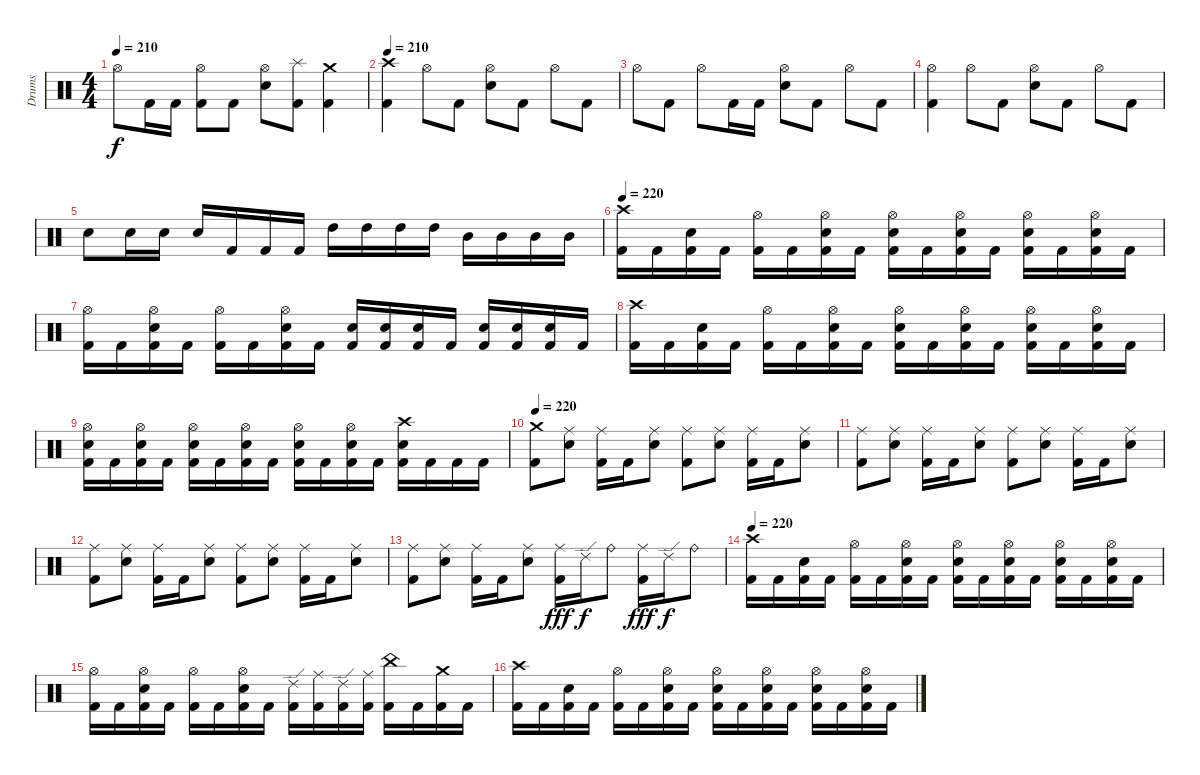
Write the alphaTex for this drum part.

\track ("Drums" "Drums") {instrument percussion}
\staff {score}
\articulation defaults
\ts (4 4)
\tempo 210
\clef neutral
\ks c "Hi-Hat (open)".8{dy f} "Kick (hit) 2".16 "Kick (hit) 2".16
("Hi-Hat (open)" "Kick (hit) 2").8 "Kick (hit) 2".8 ("Hi-Hat (open)" "Electric Snare (hit)").8 ("Splash (hit)" "Kick (hit) 2").8 ("Crash medium (hit)" "Kick (hit) 2").4 |
\tempo 210
("Crash high (hit)" "Kick (hit) 2").4 "Hi-Hat (open)".8 "Kick (hit) 2".8 ("Hi-Hat (open)" "Electric Snare (hit)").8 "Kick (hit) 2".8 "Hi-Hat (open)".8 "Kick (hit) 2".8 |
"Hi-Hat (open)".8 "Kick (hit) 2".8 "Hi-Hat (open)".8 "Kick (hit) 2".16 "Kick (hit) 2".16 ("Hi-Hat (open)" "Electric Snare (hit)").8 "Kick (hit) 2".8 "Hi-Hat (open)".8 "Kick (hit) 2".8 |
("Hi-Hat (open)" "Kick (hit) 2").4 "Hi-Hat (open)".8 "Kick (hit) 2".8 ("Hi-Hat (open)" "Electric Snare (hit)").8 "Kick (hit) 2".8 "Hi-Hat (open)".8 "Kick (hit) 2".8 |
"Electric Snare (hit)".8 "Electric Snare (hit)".16 "Electric Snare (hit)".16 "Electric Snare (hit)".16 "Kick (hit) 2".16 "Kick (hit) 2".16 "Kick (hit) 2".16 "High Tom (hit)".16 "High Tom (hit)".16 "High Tom (hit)".16 "High Tom (hit)".16 "Mid Tom (hit)".16 "Mid Tom (hit)".16 "Mid Tom (hit)".16 "Mid Tom (hit)".16 |
\tempo 220
("Crash high (hit)" "Kick (hit) 2").16 "Kick (hit) 2".16 ("Electric Snare (hit)" "Kick (hit) 2").16 "Kick (hit) 2".16 ("Hi-Hat (open)" "Kick (hit) 2").16 "Kick (hit) 2".16 ("Hi-Hat (open)" "Electric Snare (hit)" "Kick (hit) 2").16 "Kick (hit) 2".16 ("Hi-Hat (open)" "Electric Snare (hit)" "Kick (hit) 2").16 "Kick (hit) 2".16 ("Hi-Hat (open)" "Electric Snare (hit)" "Kick (hit) 2").16 "Kick (hit) 2".16 ("Hi-Hat (open)" "Electric Snare (hit)" "Kick (hit) 2").16 "Kick (hit) 2".16 ("Hi-Hat (open)" "Electric Snare (hit)" "Kick (hit) 2").16 "Kick (hit) 2".16 |
("Hi-Hat (open)" "Kick (hit) 2").16 "Kick (hit) 2".16 ("Hi-Hat (open)" "Electric Snare (hit)" "Kick (hit) 2").16 "Kick (hit) 2".16 ("Hi-Hat (open)" "Kick (hit) 2").16 "Kick (hit) 2".16 ("Hi-Hat (open)" "Electric Snare (hit)" "Kick (hit) 2").16 "Kick (hit) 2".16 ("Electric Snare (hit)" "Kick (hit) 2").16 ("Electric Snare (hit)" "Kick (hit) 2").16 ("Electric Snare (hit)" "Kick (hit) 2").16 "Kick (hit) 2".16 ("Electric Snare (hit)" "Kick (hit) 2").16 ("Electric Snare (hit)" "Kick (hit) 2").16 ("Electric Snare (hit)" "Kick (hit) 2").16 "Kick (hit) 2".16 |
("Crash high (hit)" "Kick (hit) 2").16 "Kick (hit) 2".16 ("Electric Snare (hit)" "Kick (hit) 2").16 "Kick (hit) 2".16 ("Hi-Hat (open)" "Kick (hit) 2").16 "Kick (hit) 2".16 ("Hi-Hat (open)" "Electric Snare (hit)" "Kick (hit) 2").16 "Kick (hit) 2".16 ("Hi-Hat (open)" "Electric Snare (hit)" "Kick (hit) 2").16 "Kick (hit) 2".16 ("Hi-Hat (open)" "Electric Snare (hit)" "Kick (hit) 2").16 "Kick (hit) 2".16 ("Hi-Hat (open)" "Electric Snare (hit)" "Kick (hit) 2").16 "Kick (hit) 2".16 ("Hi-Hat (open)" "Electric Snare (hit)" "Kick (hit) 2").16 "Kick (hit) 2".16 |
("Hi-Hat (open)" "Electric Snare (hit)" "Kick (hit) 2").16 "Kick (hit) 2".16 ("Hi-Hat (open)" "Electric Snare (hit)" "Kick (hit) 2").16 "Kick (hit) 2".16 ("Hi-Hat (open)" "Electric Snare (hit)" "Kick (hit) 2").16 "Kick (hit) 2".16 ("Hi-Hat (open)" "Electric Snare (hit)" "Kick (hit) 2").16 "Kick (hit) 2".16 ("Hi-Hat (open)" "Electric Snare (hit)" "Kick (hit) 2").16 "Kick (hit) 2".16 ("Hi-Hat (open)" "Electric Snare (hit)" "Kick (hit) 2").16 "Kick (hit) 2".16 ("Crash high (hit)" "Electric Snare (hit)" "Kick (hit) 2").16 "Kick (hit) 2".16 "Kick (hit) 2".16 "Kick (hit) 2".16 |
\tempo 220
("Crash medium (hit)" "Kick (hit) 2").8 ("Ride (middle)" "Electric Snare (hit)").8 ("Ride (middle)" "Kick (hit) 2").16 "Kick (hit) 2".16 ("Ride (middle)" "Electric Snare (hit)").8 ("Ride (middle)" "Kick (hit) 2").8 ("Ride (middle)" "Electric Snare (hit)").8 ("Ride (middle)" "Kick (hit) 2").16 "Kick (hit) 2".16 ("Ride (middle)" "Electric Snare (hit)").8 |
("Ride (middle)" "Kick (hit) 2").8 ("Ride (middle)" "Electric Snare (hit)").8 ("Ride (middle)" "Kick (hit) 2").16 "Kick (hit) 2".16 ("Ride (middle)" "Electric Snare (hit)").8 ("Ride (middle)" "Kick (hit) 2").8 ("Ride (middle)" "Electric Snare (hit)").8 ("Ride (middle)" "Kick (hit) 2").16 "Kick (hit) 2".16 ("Ride (middle)" "Electric Snare (hit)").8 |
("Ride (middle)" "Kick (hit) 2").8 ("Ride (middle)" "Electric Snare (hit)").8 ("Ride (middle)" "Kick (hit) 2").16 "Kick (hit) 2".16 ("Ride (middle)" "Electric Snare (hit)").8 ("Ride (middle)" "Kick (hit) 2").8 ("Ride (middle)" "Electric Snare (hit)").8 ("Ride (middle)" "Kick (hit) 2").16 "Kick (hit) 2".16 ("Ride (middle)" "Electric Snare (hit)").8 |
("Ride (middle)" "Kick (hit) 2").8 ("Ride (middle)" "Electric Snare (hit)").8 ("Ride (middle)" "Kick (hit) 2").16 "Kick (hit) 2".16 ("Ride (middle)" "Electric Snare (hit)").8 ("Ride (middle)" "Kick (hit) 2").16{dy fff} "Ride (edge) 2".16{dy f} "Ride (bell)".8 ("Ride (middle)" "Kick (hit) 2").16{dy fff} "Ride (edge) 2".16{dy f} "Ride (bell)".8 |
\tempo 220
("Crash high (hit)" "Kick (hit) 2").16 "Kick (hit) 2".16 ("Electric Snare (hit)" "Kick (hit) 2").16 "Kick (hit) 2".16 ("Hi-Hat (open)" "Kick (hit) 2").16 "Kick (hit) 2".16 ("Hi-Hat (open)" "Electric Snare (hit)" "Kick (hit) 2").16 "Kick (hit) 2".16 ("Hi-Hat (open)" "Electric Snare (hit)" "Kick (hit) 2").16 "Kick (hit) 2".16 ("Hi-Hat (open)" "Electric Snare (hit)" "Kick (hit) 2").16 "Kick (hit) 2".16 ("Hi-Hat (open)" "Electric Snare (hit)" "Kick (hit) 2").16 "Kick (hit) 2".16 ("Hi-Hat (open)" "Electric Snare (hit)" "Kick (hit) 2").16 "Kick (hit) 2".16 |
("Hi-Hat (open)" "Kick (hit) 2").16 "Kick (hit) 2".16 ("Hi-Hat (open)" "Electric Snare (hit)" "Kick (hit) 2").16 "Kick (hit) 2".16 ("Hi-Hat (open)" "Kick (hit) 2").16 "Kick (hit) 2".16 ("Hi-Hat (open)" "Electric Snare (hit)" "Kick (hit) 2").16 "Kick (hit) 2".16 ("Ride (edge) 2" "Kick (hit) 2").16 ("Ride (middle)" "Kick (hit) 2").16 ("Ride (edge) 2" "Kick (hit) 2").16 ("Ride (middle)" "Kick (hit) 2").16 ("China (hit)" "Kick (hit) 2").16 "Kick (hit) 2".16 ("Crash medium (hit)" "Kick (hit) 2").16 "Kick (hit) 2".16 |
("Crash high (hit)" "Kick (hit) 2").16 "Kick (hit) 2".16 ("Electric Snare (hit)" "Kick (hit) 2").16 "Kick (hit) 2".16 ("Hi-Hat (open)" "Kick (hit) 2").16 "Kick (hit) 2".16 ("Hi-Hat (open)" "Electric Snare (hit)" "Kick (hit) 2").16 "Kick (hit) 2".16 ("Hi-Hat (open)" "Electric Snare (hit)" "Kick (hit) 2").16 "Kick (hit) 2".16 ("Hi-Hat (open)" "Electric Snare (hit)" "Kick (hit) 2").16 "Kick (hit) 2".16 ("Hi-Hat (open)" "Electric Snare (hit)" "Kick (hit) 2").16 "Kick (hit) 2".16 ("Hi-Hat (open)" "Electric Snare (hit)" "Kick (hit) 2").16 "Kick (hit) 2".16
